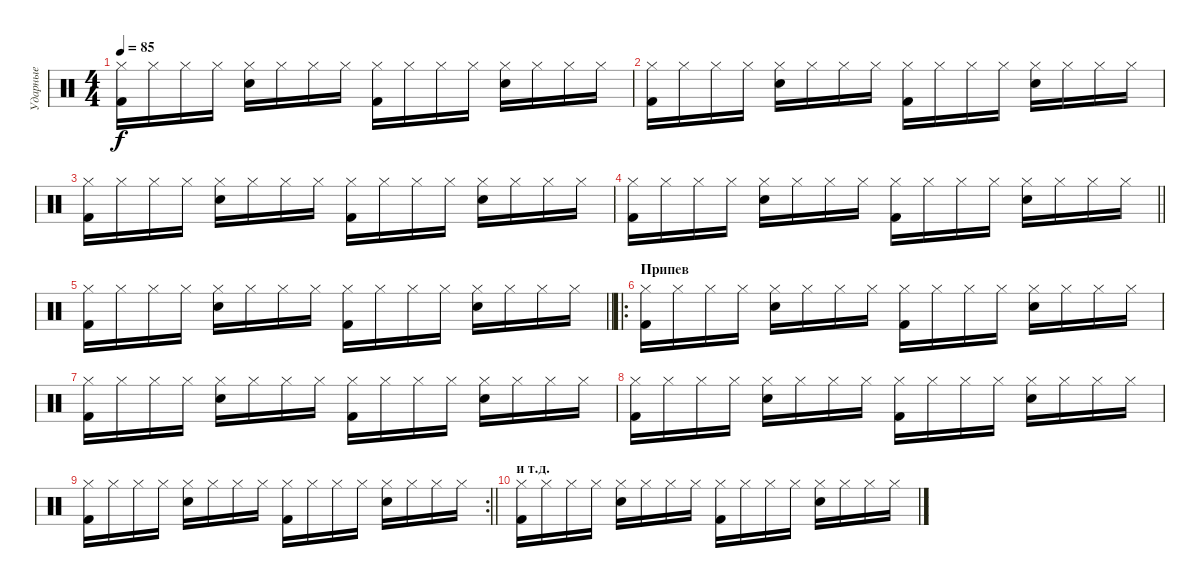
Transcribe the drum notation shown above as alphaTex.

\track ("Ударные" "Ударные") {instrument percussion}
\staff {score}
\articulation defaults
\ts (4 4)
\tempo 85
\clef neutral
\ks c
("Kick (hit) 2" "Hi-Hat (closed)").16{dy f} "Hi-Hat (closed)".16 "Hi-Hat (closed)".16 "Hi-Hat (closed)".16 ("Snare (hit) 2" "Hi-Hat (closed)").16 "Hi-Hat (closed)".16 "Hi-Hat (closed)".16 "Hi-Hat (closed)".16 ("Kick (hit) 2" "Hi-Hat (closed)").16 "Hi-Hat (closed)".16 "Hi-Hat (closed)".16 "Hi-Hat (closed)".16 ("Snare (hit) 2" "Hi-Hat (closed)").16 "Hi-Hat (closed)".16 "Hi-Hat (closed)".16 "Hi-Hat (closed)".16 |
("Kick (hit) 2" "Hi-Hat (closed)").16 "Hi-Hat (closed)".16 "Hi-Hat (closed)".16 "Hi-Hat (closed)".16 ("Snare (hit) 2" "Hi-Hat (closed)").16 "Hi-Hat (closed)".16 "Hi-Hat (closed)".16 "Hi-Hat (closed)".16 ("Kick (hit) 2" "Hi-Hat (closed)").16 "Hi-Hat (closed)".16 "Hi-Hat (closed)".16 "Hi-Hat (closed)".16 ("Snare (hit) 2" "Hi-Hat (closed)").16 "Hi-Hat (closed)".16 "Hi-Hat (closed)".16 "Hi-Hat (closed)".16 |
("Kick (hit) 2" "Hi-Hat (closed)").16 "Hi-Hat (closed)".16 "Hi-Hat (closed)".16 "Hi-Hat (closed)".16 ("Snare (hit) 2" "Hi-Hat (closed)").16 "Hi-Hat (closed)".16 "Hi-Hat (closed)".16 "Hi-Hat (closed)".16 ("Kick (hit) 2" "Hi-Hat (closed)").16 "Hi-Hat (closed)".16 "Hi-Hat (closed)".16 "Hi-Hat (closed)".16 ("Snare (hit) 2" "Hi-Hat (closed)").16 "Hi-Hat (closed)".16 "Hi-Hat (closed)".16 "Hi-Hat (closed)".16 |
\barLineRight lightlight
("Kick (hit) 2" "Hi-Hat (closed)").16 "Hi-Hat (closed)".16 "Hi-Hat (closed)".16 "Hi-Hat (closed)".16 ("Snare (hit) 2" "Hi-Hat (closed)").16 "Hi-Hat (closed)".16 "Hi-Hat (closed)".16 "Hi-Hat (closed)".16 ("Kick (hit) 2" "Hi-Hat (closed)").16 "Hi-Hat (closed)".16 "Hi-Hat (closed)".16 "Hi-Hat (closed)".16 ("Snare (hit) 2" "Hi-Hat (closed)").16 "Hi-Hat (closed)".16 "Hi-Hat (closed)".16 "Hi-Hat (closed)".16 |
\barLineRight lightlight
("Kick (hit) 2" "Hi-Hat (closed)").16 "Hi-Hat (closed)".16 "Hi-Hat (closed)".16 "Hi-Hat (closed)".16 ("Snare (hit) 2" "Hi-Hat (closed)").16 "Hi-Hat (closed)".16 "Hi-Hat (closed)".16 "Hi-Hat (closed)".16 ("Kick (hit) 2" "Hi-Hat (closed)").16 "Hi-Hat (closed)".16 "Hi-Hat (closed)".16 "Hi-Hat (closed)".16 ("Snare (hit) 2" "Hi-Hat (closed)").16 "Hi-Hat (closed)".16 "Hi-Hat (closed)".16 "Hi-Hat (closed)".16 |
\ro
\section ("" "Припев")
("Kick (hit) 2" "Hi-Hat (closed)").16 "Hi-Hat (closed)".16 "Hi-Hat (closed)".16 "Hi-Hat (closed)".16 ("Snare (hit) 2" "Hi-Hat (closed)").16 "Hi-Hat (closed)".16 "Hi-Hat (closed)".16 "Hi-Hat (closed)".16 ("Kick (hit) 2" "Hi-Hat (closed)").16 "Hi-Hat (closed)".16 "Hi-Hat (closed)".16 "Hi-Hat (closed)".16 ("Snare (hit) 2" "Hi-Hat (closed)").16 "Hi-Hat (closed)".16 "Hi-Hat (closed)".16 "Hi-Hat (closed)".16 |
("Kick (hit) 2" "Hi-Hat (closed)").16 "Hi-Hat (closed)".16 "Hi-Hat (closed)".16 "Hi-Hat (closed)".16 ("Snare (hit) 2" "Hi-Hat (closed)").16 "Hi-Hat (closed)".16 "Hi-Hat (closed)".16 "Hi-Hat (closed)".16 ("Kick (hit) 2" "Hi-Hat (closed)").16 "Hi-Hat (closed)".16 "Hi-Hat (closed)".16 "Hi-Hat (closed)".16 ("Snare (hit) 2" "Hi-Hat (closed)").16 "Hi-Hat (closed)".16 "Hi-Hat (closed)".16 "Hi-Hat (closed)".16 |
("Kick (hit) 2" "Hi-Hat (closed)").16 "Hi-Hat (closed)".16 "Hi-Hat (closed)".16 "Hi-Hat (closed)".16 ("Snare (hit) 2" "Hi-Hat (closed)").16 "Hi-Hat (closed)".16 "Hi-Hat (closed)".16 "Hi-Hat (closed)".16 ("Kick (hit) 2" "Hi-Hat (closed)").16 "Hi-Hat (closed)".16 "Hi-Hat (closed)".16 "Hi-Hat (closed)".16 ("Snare (hit) 2" "Hi-Hat (closed)").16 "Hi-Hat (closed)".16 "Hi-Hat (closed)".16 "Hi-Hat (closed)".16 |
\rc 2
\barLineRight lightlight
("Kick (hit) 2" "Hi-Hat (closed)").16 "Hi-Hat (closed)".16 "Hi-Hat (closed)".16 "Hi-Hat (closed)".16 ("Snare (hit) 2" "Hi-Hat (closed)").16 "Hi-Hat (closed)".16 "Hi-Hat (closed)".16 "Hi-Hat (closed)".16 ("Kick (hit) 2" "Hi-Hat (closed)").16 "Hi-Hat (closed)".16 "Hi-Hat (closed)".16 "Hi-Hat (closed)".16 ("Snare (hit) 2" "Hi-Hat (closed)").16 "Hi-Hat (closed)".16 "Hi-Hat (closed)".16 "Hi-Hat (closed)".16 |
\section ("" "и т.д.")
("Kick (hit) 2" "Hi-Hat (closed)").16 "Hi-Hat (closed)".16 "Hi-Hat (closed)".16 "Hi-Hat (closed)".16 ("Snare (hit) 2" "Hi-Hat (closed)").16 "Hi-Hat (closed)".16 "Hi-Hat (closed)".16 "Hi-Hat (closed)".16 ("Kick (hit) 2" "Hi-Hat (closed)").16 "Hi-Hat (closed)".16 "Hi-Hat (closed)".16 "Hi-Hat (closed)".16 ("Snare (hit) 2" "Hi-Hat (closed)").16 "Hi-Hat (closed)".16 "Hi-Hat (closed)".16 "Hi-Hat (closed)".16
